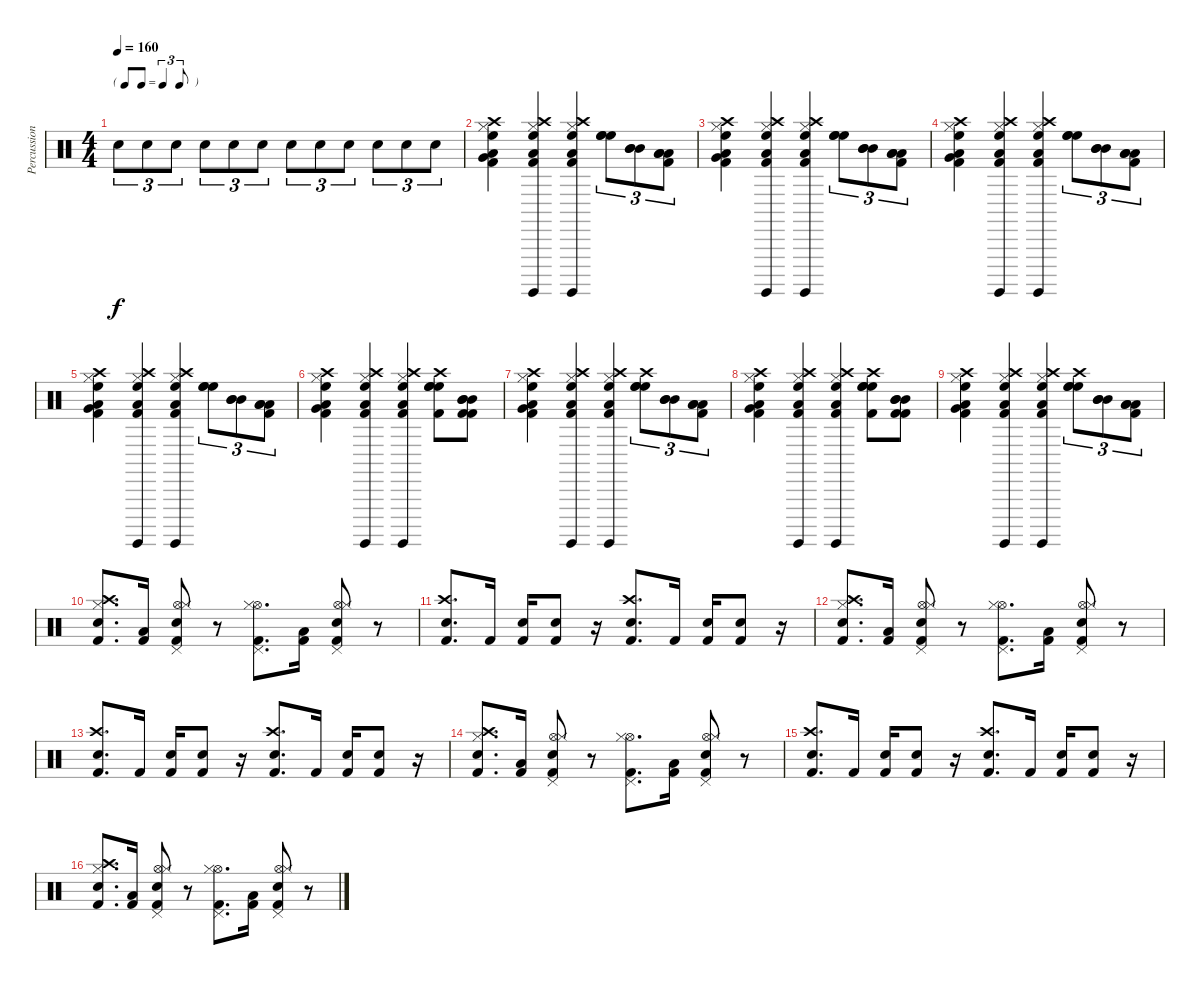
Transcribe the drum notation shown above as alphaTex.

\track ("Percussion" "Percussion") {instrument percussion}
\staff {score}
\articulation defaults
\ts (4 4)
\tf triplet8th
\tempo 160
\clef neutral
\ks c "Electric Snare (hit)".8{tu (3 2) dy f} "Electric Snare (hit)".8{tu (3 2)} "Electric Snare (hit)".8{tu (3 2)} "Electric Snare (hit)".8{tu (3 2)} "Electric Snare (hit)".8{tu (3 2)} "Electric Snare (hit)".8{tu (3 2)} "Electric Snare (hit)".8{tu (3 2)} "Electric Snare (hit)".8{tu (3 2)} "Electric Snare (hit)".8{tu (3 2)} "Electric Snare (hit)".8{tu (3 2)} "Electric Snare (hit)".8{tu (3 2)} "Electric Snare (hit)".8{tu (3 2)}
|
("Hi-Hat (closed)" "Crash high (hit)" "High Floor Tom (hit)" "Very Low Tom (hit)" "Kick (hit) 2" "Low Floor Tom (hit)").4 ("Hi-Hat (closed)" "Crash high (hit)" "High Floor Tom (hit)" "Surdo (hit)" "Kick (hit) 2" "Low Floor Tom (hit)").4 ("Hi-Hat (closed)" "Crash high (hit)" "High Floor Tom (hit)" "Surdo (hit)" "Kick (hit) 2" "Low Floor Tom (hit)").4 ("High Floor Tom (hit)" "High Floor Tom (hit)" "High Floor Tom (hit)").8{tu (3 2)} ("Mid Tom (hit)" "Mid Tom (hit)" "Mid Tom (hit)").8{tu (3 2)} ("Kick (hit) 2" "Low Floor Tom (hit)" "Low Floor Tom (hit)" "Low Floor Tom (hit)").8{tu (3 2)} |
("Hi-Hat (closed)" "Crash high (hit)" "High Floor Tom (hit)" "Very Low Tom (hit)" "Kick (hit) 2" "Low Floor Tom (hit)").4 ("Hi-Hat (closed)" "Crash high (hit)" "High Floor Tom (hit)" "Surdo (hit)" "Kick (hit) 2" "Low Floor Tom (hit)").4 ("Hi-Hat (closed)" "Crash high (hit)" "High Floor Tom (hit)" "Surdo (hit)" "Kick (hit) 2" "Low Floor Tom (hit)").4 ("High Floor Tom (hit)" "High Floor Tom (hit)" "High Floor Tom (hit)").8{tu (3 2)} ("Mid Tom (hit)" "Mid Tom (hit)" "Mid Tom (hit)").8{tu (3 2)} ("Kick (hit) 2" "Low Floor Tom (hit)" "Low Floor Tom (hit)" "Low Floor Tom (hit)").8{tu (3 2)} |
("Hi-Hat (closed)" "Crash high (hit)" "High Floor Tom (hit)" "Very Low Tom (hit)" "Kick (hit) 2" "Low Floor Tom (hit)").4 ("Hi-Hat (closed)" "Crash high (hit)" "High Floor Tom (hit)" "Surdo (hit)" "Kick (hit) 2" "Low Floor Tom (hit)").4 ("Hi-Hat (closed)" "Crash high (hit)" "High Floor Tom (hit)" "Surdo (hit)" "Kick (hit) 2" "Low Floor Tom (hit)").4 ("High Floor Tom (hit)" "High Floor Tom (hit)" "High Floor Tom (hit)").8{tu (3 2)} ("Mid Tom (hit)" "Mid Tom (hit)" "Mid Tom (hit)").8{tu (3 2)} ("Kick (hit) 2" "Low Floor Tom (hit)" "Low Floor Tom (hit)" "Low Floor Tom (hit)").8{tu (3 2)} |
("Hi-Hat (closed)" "Crash high (hit)" "High Floor Tom (hit)" "Very Low Tom (hit)" "Kick (hit) 2" "Low Floor Tom (hit)").4 ("Hi-Hat (closed)" "Crash high (hit)" "High Floor Tom (hit)" "Surdo (hit)" "Kick (hit) 2" "Low Floor Tom (hit)").4 ("Hi-Hat (closed)" "Crash high (hit)" "High Floor Tom (hit)" "Surdo (hit)" "Kick (hit) 2" "Low Floor Tom (hit)").4 ("High Floor Tom (hit)" "High Floor Tom (hit)" "High Floor Tom (hit)").8{tu (3 2)} ("Mid Tom (hit)" "Mid Tom (hit)" "Mid Tom (hit)").8{tu (3 2)} ("Kick (hit) 2" "Low Floor Tom (hit)" "Low Floor Tom (hit)" "Low Floor Tom (hit)").8{tu (3 2)} |
("Hi-Hat (closed)" "Crash high (hit)" "High Floor Tom (hit)" "Very Low Tom (hit)" "Kick (hit) 2" "Low Floor Tom (hit)").4 ("Hi-Hat (closed)" "Crash high (hit)" "High Floor Tom (hit)" "Surdo (hit)" "Kick (hit) 2" "Low Floor Tom (hit)").4 ("Hi-Hat (closed)" "Crash high (hit)" "High Floor Tom (hit)" "Surdo (hit)" "Kick (hit) 2" "Low Floor Tom (hit)").4 ("Crash high (hit)" "High Floor Tom (hit)" "High Floor Tom (hit)" "High Floor Tom (hit)" "Kick (hit) 2").8 ("Kick (hit) 2" "Mid Tom (hit)" "Mid Tom (hit)" "Mid Tom (hit)" "Kick (hit) 2").8 |
("Hi-Hat (closed)" "Crash high (hit)" "High Floor Tom (hit)" "Very Low Tom (hit)" "Kick (hit) 2" "Low Floor Tom (hit)").4 ("Hi-Hat (closed)" "Crash high (hit)" "High Floor Tom (hit)" "Surdo (hit)" "Kick (hit) 2" "Low Floor Tom (hit)").4 ("Hi-Hat (closed)" "Crash high (hit)" "High Floor Tom (hit)" "Surdo (hit)" "Kick (hit) 2" "Low Floor Tom (hit)").4 ("Crash high (hit)" "High Floor Tom (hit)" "High Floor Tom (hit)" "High Floor Tom (hit)").8{tu (3 2)} ("Mid Tom (hit)" "Mid Tom (hit)" "Mid Tom (hit)").8{tu (3 2)} ("Kick (hit) 2" "Low Floor Tom (hit)" "Low Floor Tom (hit)" "Low Floor Tom (hit)").8{tu (3 2)} |
("Hi-Hat (closed)" "Crash high (hit)" "High Floor Tom (hit)" "Very Low Tom (hit)" "Kick (hit) 2" "Low Floor Tom (hit)").4 ("Hi-Hat (closed)" "Crash high (hit)" "High Floor Tom (hit)" "Surdo (hit)" "Kick (hit) 2" "Low Floor Tom (hit)").4 ("Hi-Hat (closed)" "Crash high (hit)" "High Floor Tom (hit)" "Surdo (hit)" "Kick (hit) 2" "Low Floor Tom (hit)").4 ("Crash high (hit)" "High Floor Tom (hit)" "High Floor Tom (hit)" "High Floor Tom (hit)" "Kick (hit) 2").8 ("Kick (hit) 2" "Mid Tom (hit)" "Mid Tom (hit)" "Mid Tom (hit)" "Kick (hit) 2").8 |
("Hi-Hat (closed)" "Crash high (hit)" "High Floor Tom (hit)" "Very Low Tom (hit)" "Kick (hit) 2" "Low Floor Tom (hit)").4 ("Hi-Hat (closed)" "Crash high (hit)" "High Floor Tom (hit)" "Surdo (hit)" "Kick (hit) 2" "Low Floor Tom (hit)").4 ("Hi-Hat (closed)" "Crash high (hit)" "High Floor Tom (hit)" "Surdo (hit)" "Kick (hit) 2" "Low Floor Tom (hit)").4 ("Crash high (hit)" "High Floor Tom (hit)" "High Floor Tom (hit)" "High Floor Tom (hit)").8{tu (3 2)} ("Mid Tom (hit)" "Mid Tom (hit)" "Mid Tom (hit)").8{tu (3 2)} ("Kick (hit) 2" "Low Floor Tom (hit)" "Low Floor Tom (hit)" "Low Floor Tom (hit)").8{tu (3 2)} |
("Crash high (hit)" "Kick (hit) 2" "Hi-Hat (closed)" "Electric Snare (hit)").8{d} ("Kick (hit) 2" "Low Tom (hit)").16 ("Hi-Hat (open)" "Kick (hit) 2" "Hi-Hat (closed)" "Pedal Hi-Hat (hit)" "Electric Snare (hit)").8 r.8 ("Hi-Hat (open)" "Kick (hit) 2" "Hi-Hat (closed)" "Pedal Hi-Hat (hit)").8{d} ("Kick (hit) 2" "Low Tom (hit)").16 ("Hi-Hat (open)" "Kick (hit) 2" "Hi-Hat (closed)" "Electric Snare (hit)" "Pedal Hi-Hat (hit)").8 r.8 |
("Crash high (hit)" "Kick (hit) 2" "Electric Snare (hit)").8{d} "Kick (hit) 2".16 ("Kick (hit) 2" "Electric Snare (hit)").16 ("Kick (hit) 2" "Electric Snare (hit)").8 r.16 ("Crash high (hit)" "Kick (hit) 2" "Electric Snare (hit)").8{d} "Kick (hit) 2".16 ("Kick (hit) 2" "Electric Snare (hit)").16 ("Kick (hit) 2" "Electric Snare (hit)").8 r.16 |
("Crash high (hit)" "Kick (hit) 2" "Hi-Hat (closed)" "Electric Snare (hit)").8{d} ("Kick (hit) 2" "Low Tom (hit)").16 ("Hi-Hat (open)" "Kick (hit) 2" "Hi-Hat (closed)" "Pedal Hi-Hat (hit)" "Electric Snare (hit)").8 r.8 ("Hi-Hat (open)" "Kick (hit) 2" "Hi-Hat (closed)" "Pedal Hi-Hat (hit)").8{d} ("Kick (hit) 2" "Low Tom (hit)").16 ("Hi-Hat (open)" "Kick (hit) 2" "Hi-Hat (closed)" "Electric Snare (hit)" "Pedal Hi-Hat (hit)").8 r.8 |
("Crash high (hit)" "Kick (hit) 2" "Electric Snare (hit)").8{d} "Kick (hit) 2".16 ("Kick (hit) 2" "Electric Snare (hit)").16 ("Kick (hit) 2" "Electric Snare (hit)").8 r.16 ("Crash high (hit)" "Kick (hit) 2" "Electric Snare (hit)").8{d} "Kick (hit) 2".16 ("Kick (hit) 2" "Electric Snare (hit)").16 ("Kick (hit) 2" "Electric Snare (hit)").8 r.16 |
("Crash high (hit)" "Kick (hit) 2" "Hi-Hat (closed)" "Electric Snare (hit)").8{d} ("Kick (hit) 2" "Low Tom (hit)").16 ("Hi-Hat (open)" "Kick (hit) 2" "Hi-Hat (closed)" "Pedal Hi-Hat (hit)" "Electric Snare (hit)").8 r.8 ("Hi-Hat (open)" "Kick (hit) 2" "Hi-Hat (closed)" "Pedal Hi-Hat (hit)").8{d} ("Kick (hit) 2" "Low Tom (hit)").16 ("Hi-Hat (open)" "Kick (hit) 2" "Hi-Hat (closed)" "Electric Snare (hit)" "Pedal Hi-Hat (hit)").8 r.8 |
("Crash high (hit)" "Kick (hit) 2" "Electric Snare (hit)").8{d} "Kick (hit) 2".16 ("Kick (hit) 2" "Electric Snare (hit)").16 ("Kick (hit) 2" "Electric Snare (hit)").8 r.16 ("Crash high (hit)" "Kick (hit) 2" "Electric Snare (hit)").8{d} "Kick (hit) 2".16 ("Kick (hit) 2" "Electric Snare (hit)").16 ("Kick (hit) 2" "Electric Snare (hit)").8 r.16 |
("Crash high (hit)" "Kick (hit) 2" "Hi-Hat (closed)" "Electric Snare (hit)").8{d} ("Kick (hit) 2" "Low Tom (hit)").16 ("Hi-Hat (open)" "Kick (hit) 2" "Hi-Hat (closed)" "Pedal Hi-Hat (hit)" "Electric Snare (hit)").8 r.8 ("Hi-Hat (open)" "Kick (hit) 2" "Hi-Hat (closed)" "Pedal Hi-Hat (hit)").8{d} ("Kick (hit) 2" "Low Tom (hit)").16 ("Hi-Hat (open)" "Kick (hit) 2" "Hi-Hat (closed)" "Electric Snare (hit)" "Pedal Hi-Hat (hit)").8 r.8
